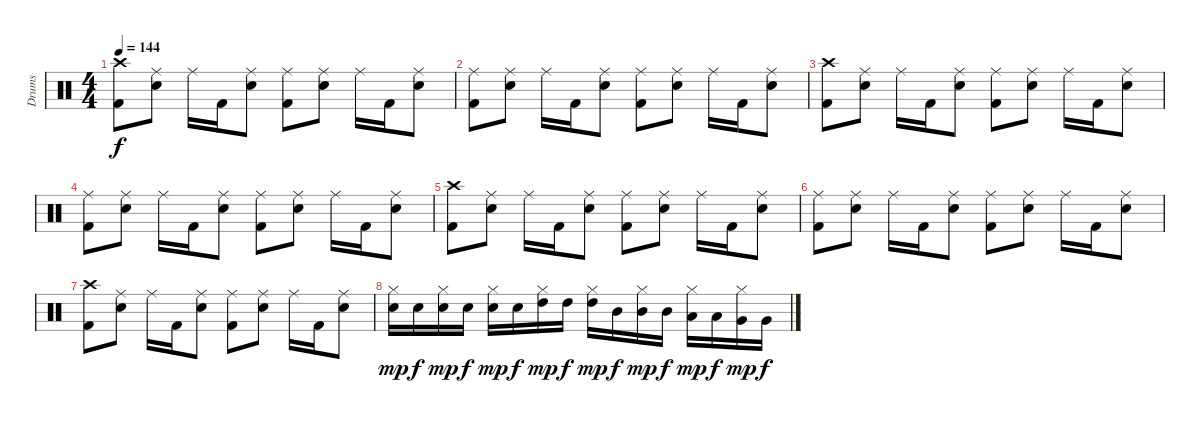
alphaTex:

\track ("Drums" "Drums") {instrument percussion}
\staff {score}
\articulation defaults
\ts (4 4)
\tempo 144
\clef neutral
\ks c
("Crash high (hit)" "Kick (hit) 2").8{dy f} ("Ride (middle)" "Electric Snare (hit)").8 "Ride (middle)".16 "Kick (hit) 2".16 ("Ride (middle)" "Electric Snare (hit)").8 ("Ride (middle)" "Kick (hit) 2").8 ("Ride (middle)" "Electric Snare (hit)").8 "Ride (middle)".16 "Kick (hit) 2".16 ("Ride (middle)" "Electric Snare (hit)").8 |
("Ride (middle)" "Kick (hit) 2").8 ("Ride (middle)" "Electric Snare (hit)").8 "Ride (middle)".16 "Kick (hit) 2".16 ("Ride (middle)" "Electric Snare (hit)").8 ("Ride (middle)" "Kick (hit) 2").8 ("Ride (middle)" "Electric Snare (hit)").8 "Ride (middle)".16 "Kick (hit) 2".16 ("Ride (middle)" "Electric Snare (hit)").8 |
("Crash high (hit)" "Kick (hit) 2").8 ("Ride (middle)" "Electric Snare (hit)").8 "Ride (middle)".16 "Kick (hit) 2".16 ("Ride (middle)" "Electric Snare (hit)").8 ("Ride (middle)" "Kick (hit) 2").8 ("Ride (middle)" "Electric Snare (hit)").8 "Ride (middle)".16 "Kick (hit) 2".16 ("Ride (middle)" "Electric Snare (hit)").8 |
("Ride (middle)" "Kick (hit) 2").8 ("Ride (middle)" "Electric Snare (hit)").8 "Ride (middle)".16 "Kick (hit) 2".16 ("Ride (middle)" "Electric Snare (hit)").8 ("Ride (middle)" "Kick (hit) 2").8 ("Ride (middle)" "Electric Snare (hit)").8 "Ride (middle)".16 "Kick (hit) 2".16 ("Ride (middle)" "Electric Snare (hit)").8 |
("Crash high (hit)" "Kick (hit) 2").8 ("Ride (middle)" "Electric Snare (hit)").8 "Ride (middle)".16 "Kick (hit) 2".16 ("Ride (middle)" "Electric Snare (hit)").8 ("Ride (middle)" "Kick (hit) 2").8 ("Ride (middle)" "Electric Snare (hit)").8 "Ride (middle)".16 "Kick (hit) 2".16 ("Ride (middle)" "Electric Snare (hit)").8 |
("Ride (middle)" "Kick (hit) 2").8 ("Ride (middle)" "Electric Snare (hit)").8 "Ride (middle)".16 "Kick (hit) 2".16 ("Ride (middle)" "Electric Snare (hit)").8 ("Ride (middle)" "Kick (hit) 2").8 ("Ride (middle)" "Electric Snare (hit)").8 "Ride (middle)".16 "Kick (hit) 2".16 ("Ride (middle)" "Electric Snare (hit)").8 |
("Crash high (hit)" "Kick (hit) 2").8 ("Ride (middle)" "Electric Snare (hit)").8 "Ride (middle)".16 "Kick (hit) 2".16 ("Ride (middle)" "Electric Snare (hit)").8 ("Ride (middle)" "Kick (hit) 2").8 ("Ride (middle)" "Electric Snare (hit)").8 "Ride (middle)".16 "Kick (hit) 2".16 ("Ride (middle)" "Electric Snare (hit)").8 |
("Electric Snare (hit)" "Hi-Hat (closed)").16{dy mp} "Electric Snare (hit)".16{dy f} ("Electric Snare (hit)" "Hi-Hat (closed)").16{dy mp} "Electric Snare (hit)".16{dy f} ("Electric Snare (hit)" "Hi-Hat (closed)").16{dy mp} "Electric Snare (hit)".16{dy f} ("High Tom (hit)" "Hi-Hat (closed)").16{dy mp} "High Tom (hit)".16{dy f} ("High Tom (hit)" "Hi-Hat (closed)").16{dy mp} "Mid Tom (hit)".16{dy f} ("Mid Tom (hit)" "Hi-Hat (closed)").16{dy mp} "Mid Tom (hit)".16{dy f} ("Low Tom (hit)" "Hi-Hat (closed)").16{dy mp} "Low Tom (hit)".16{dy f} ("Very Low Tom (hit)" "Hi-Hat (closed)").16{dy mp} "Very Low Tom (hit)".16{dy f}
